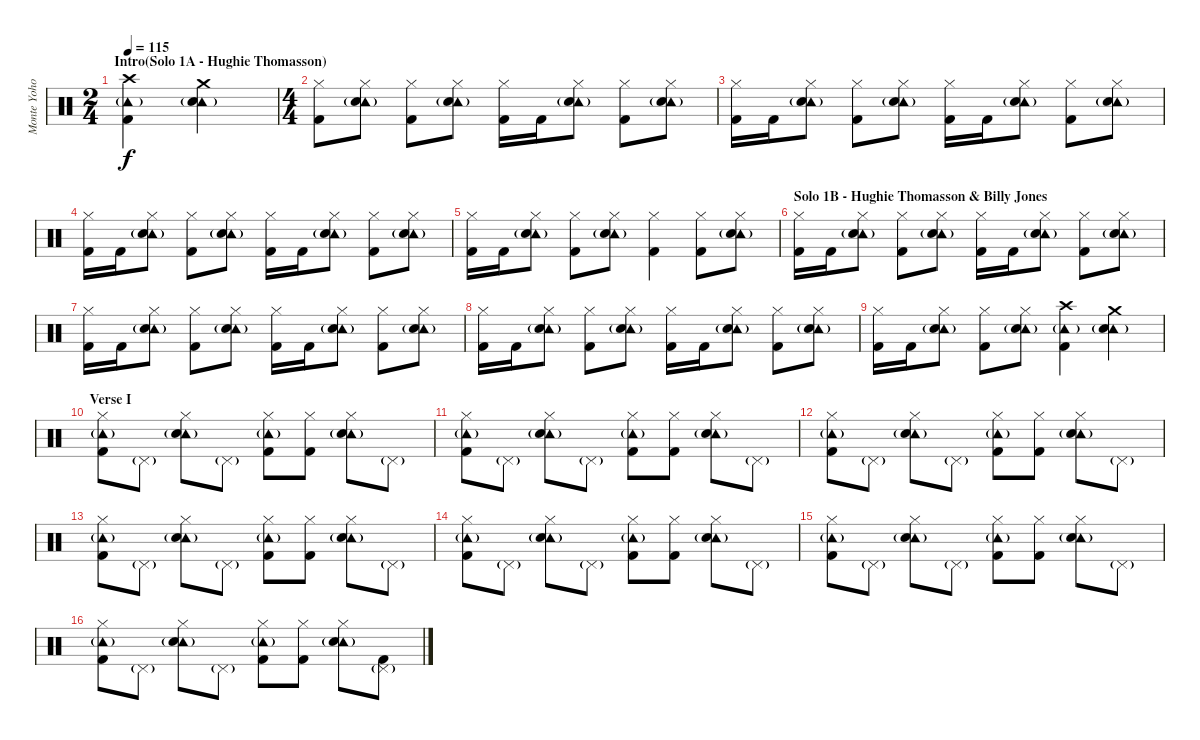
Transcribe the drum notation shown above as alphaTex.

\track ("Monte Yoho - Drums" "Monte Yoho") {instrument percussion}
\staff {score}
\articulation defaults
\ts (2 4)
\section ("" "Intro(Solo 1A - Hughie Thomasson)")
\tempo 115
\clef neutral
\ks c
("Crash high (hit)" "Tambourine (hit)"{g} "Kick (hit) 2").4{dy f} ("Crash medium (hit)" "Tambourine (hit)"{g} "Snare (hit) 2").4 |
\ts (4 4)
("Hi-Hat (closed)" "Kick (hit) 2").8 ("Hi-Hat (closed)" "Tambourine (hit)"{g} "Snare (hit) 2").8 ("Hi-Hat (closed)" "Kick (hit) 2").8 ("Hi-Hat (closed)" "Tambourine (hit)"{g} "Snare (hit) 2").8 ("Hi-Hat (closed)" "Kick (hit) 2").16 "Kick (hit) 2".16 ("Hi-Hat (closed)" "Tambourine (hit)"{g} "Snare (hit) 2").8 ("Hi-Hat (closed)" "Kick (hit) 2").8 ("Hi-Hat (closed)" "Tambourine (hit)"{g} "Snare (hit) 2").8 |
("Hi-Hat (closed)" "Kick (hit) 2").16 "Kick (hit) 2".16 ("Hi-Hat (closed)" "Tambourine (hit)"{g} "Snare (hit) 2").8 ("Hi-Hat (closed)" "Kick (hit) 2").8 ("Hi-Hat (closed)" "Tambourine (hit)"{g} "Snare (hit) 2").8 ("Hi-Hat (closed)" "Kick (hit) 2").16 "Kick (hit) 2".16 ("Hi-Hat (closed)" "Tambourine (hit)"{g} "Snare (hit) 2").8 ("Hi-Hat (closed)" "Kick (hit) 2").8 ("Hi-Hat (closed)" "Tambourine (hit)"{g} "Snare (hit) 2").8 |
("Hi-Hat (closed)" "Kick (hit) 2").16 "Kick (hit) 2".16 ("Hi-Hat (closed)" "Tambourine (hit)"{g} "Snare (hit) 2").8 ("Hi-Hat (closed)" "Kick (hit) 2").8 ("Hi-Hat (closed)" "Tambourine (hit)"{g} "Snare (hit) 2").8 ("Hi-Hat (closed)" "Kick (hit) 2").16 "Kick (hit) 2".16 ("Hi-Hat (closed)" "Tambourine (hit)"{g} "Snare (hit) 2").8 ("Hi-Hat (closed)" "Kick (hit) 2").8 ("Hi-Hat (closed)" "Tambourine (hit)"{g} "Snare (hit) 2").8 |
("Hi-Hat (closed)" "Kick (hit) 2").16 "Kick (hit) 2".16 ("Hi-Hat (closed)" "Tambourine (hit)"{g} "Snare (hit) 2").8 ("Hi-Hat (closed)" "Kick (hit) 2").8 ("Hi-Hat (closed)" "Tambourine (hit)"{g} "Snare (hit) 2").8 ("Hi-Hat (closed)" "Kick (hit) 2").4 ("Hi-Hat (closed)" "Kick (hit) 2").8 ("Hi-Hat (closed)" "Tambourine (hit)"{g} "Snare (hit) 2").8 |
\section ("" "Solo 1B - Hughie Thomasson & Billy Jones")
("Hi-Hat (closed)" "Kick (hit) 2").16 "Kick (hit) 2".16 ("Hi-Hat (closed)" "Tambourine (hit)"{g} "Snare (hit) 2").8 ("Hi-Hat (closed)" "Kick (hit) 2").8 ("Hi-Hat (closed)" "Tambourine (hit)"{g} "Snare (hit) 2").8 ("Hi-Hat (closed)" "Kick (hit) 2").16 "Kick (hit) 2".16 ("Hi-Hat (closed)" "Tambourine (hit)"{g} "Snare (hit) 2").8 ("Hi-Hat (closed)" "Kick (hit) 2").8 ("Hi-Hat (closed)" "Tambourine (hit)"{g} "Snare (hit) 2").8 |
("Hi-Hat (closed)" "Kick (hit) 2").16 "Kick (hit) 2".16 ("Hi-Hat (closed)" "Tambourine (hit)"{g} "Snare (hit) 2").8 ("Hi-Hat (closed)" "Kick (hit) 2").8 ("Hi-Hat (closed)" "Tambourine (hit)"{g} "Snare (hit) 2").8 ("Hi-Hat (closed)" "Kick (hit) 2").16 "Kick (hit) 2".16 ("Hi-Hat (closed)" "Tambourine (hit)"{g} "Snare (hit) 2").8 ("Hi-Hat (closed)" "Kick (hit) 2").8 ("Hi-Hat (closed)" "Tambourine (hit)"{g} "Snare (hit) 2").8 |
("Hi-Hat (closed)" "Kick (hit) 2").16 "Kick (hit) 2".16 ("Hi-Hat (closed)" "Tambourine (hit)"{g} "Snare (hit) 2").8 ("Hi-Hat (closed)" "Kick (hit) 2").8 ("Hi-Hat (closed)" "Tambourine (hit)"{g} "Snare (hit) 2").8 ("Hi-Hat (closed)" "Kick (hit) 2").16 "Kick (hit) 2".16 ("Hi-Hat (closed)" "Tambourine (hit)"{g} "Snare (hit) 2").8 ("Hi-Hat (closed)" "Kick (hit) 2").8 ("Hi-Hat (closed)" "Tambourine (hit)"{g} "Snare (hit) 2").8 |
("Hi-Hat (closed)" "Kick (hit) 2").16 "Kick (hit) 2".16 ("Hi-Hat (closed)" "Tambourine (hit)"{g} "Snare (hit) 2").8 ("Hi-Hat (closed)" "Kick (hit) 2").8 ("Hi-Hat (closed)" "Tambourine (hit)"{g} "Snare (hit) 2").8 ("Crash high (hit)" "Tambourine (hit)"{g} "Kick (hit) 2").4 ("Crash medium (hit)" "Tambourine (hit)"{g} "Snare (hit) 2").4 |
\section ("" "Verse I")
("Hi-Hat (closed)" "Tambourine (hit)"{g} "Kick (hit) 2").8 "Pedal Hi-Hat (hit)"{g}.8 ("Hi-Hat (closed)" "Tambourine (hit)"{g} "Snare (hit) 2").8 "Pedal Hi-Hat (hit)"{g}.8 ("Hi-Hat (closed)" "Tambourine (hit)"{g} "Kick (hit) 2").8 ("Hi-Hat (closed)" "Kick (hit) 2").8 ("Hi-Hat (closed)" "Tambourine (hit)"{g} "Snare (hit) 2").8 "Pedal Hi-Hat (hit)"{g}.8 |
("Hi-Hat (closed)" "Tambourine (hit)"{g} "Kick (hit) 2").8 "Pedal Hi-Hat (hit)"{g}.8 ("Hi-Hat (closed)" "Tambourine (hit)"{g} "Snare (hit) 2").8 "Pedal Hi-Hat (hit)"{g}.8 ("Hi-Hat (closed)" "Tambourine (hit)"{g} "Kick (hit) 2").8 ("Hi-Hat (closed)" "Kick (hit) 2").8 ("Hi-Hat (closed)" "Tambourine (hit)"{g} "Snare (hit) 2").8 "Pedal Hi-Hat (hit)"{g}.8 |
("Hi-Hat (closed)" "Tambourine (hit)"{g} "Kick (hit) 2").8 "Pedal Hi-Hat (hit)"{g}.8 ("Hi-Hat (closed)" "Tambourine (hit)"{g} "Snare (hit) 2").8 "Pedal Hi-Hat (hit)"{g}.8 ("Hi-Hat (closed)" "Tambourine (hit)"{g} "Kick (hit) 2").8 ("Hi-Hat (closed)" "Kick (hit) 2").8 ("Hi-Hat (closed)" "Tambourine (hit)"{g} "Snare (hit) 2").8 "Pedal Hi-Hat (hit)"{g}.8 |
("Hi-Hat (closed)" "Tambourine (hit)"{g} "Kick (hit) 2").8 "Pedal Hi-Hat (hit)"{g}.8 ("Hi-Hat (closed)" "Tambourine (hit)"{g} "Snare (hit) 2").8 "Pedal Hi-Hat (hit)"{g}.8 ("Hi-Hat (closed)" "Tambourine (hit)"{g} "Kick (hit) 2").8 ("Hi-Hat (closed)" "Kick (hit) 2").8 ("Hi-Hat (closed)" "Tambourine (hit)"{g} "Snare (hit) 2").8 "Pedal Hi-Hat (hit)"{g}.8 |
("Hi-Hat (closed)" "Tambourine (hit)"{g} "Kick (hit) 2").8 "Pedal Hi-Hat (hit)"{g}.8 ("Hi-Hat (closed)" "Tambourine (hit)"{g} "Snare (hit) 2").8 "Pedal Hi-Hat (hit)"{g}.8 ("Hi-Hat (closed)" "Tambourine (hit)"{g} "Kick (hit) 2").8 ("Hi-Hat (closed)" "Kick (hit) 2").8 ("Hi-Hat (closed)" "Tambourine (hit)"{g} "Snare (hit) 2").8 "Pedal Hi-Hat (hit)"{g}.8 |
("Hi-Hat (closed)" "Tambourine (hit)"{g} "Kick (hit) 2").8 "Pedal Hi-Hat (hit)"{g}.8 ("Hi-Hat (closed)" "Tambourine (hit)"{g} "Snare (hit) 2").8 "Pedal Hi-Hat (hit)"{g}.8 ("Hi-Hat (closed)" "Tambourine (hit)"{g} "Kick (hit) 2").8 ("Hi-Hat (closed)" "Kick (hit) 2").8 ("Hi-Hat (closed)" "Tambourine (hit)"{g} "Snare (hit) 2").8 "Pedal Hi-Hat (hit)"{g}.8 |
("Hi-Hat (closed)" "Tambourine (hit)"{g} "Kick (hit) 2").8 "Pedal Hi-Hat (hit)"{g}.8 ("Hi-Hat (closed)" "Tambourine (hit)"{g} "Snare (hit) 2").8 "Pedal Hi-Hat (hit)"{g}.8 ("Hi-Hat (closed)" "Tambourine (hit)"{g} "Kick (hit) 2").8 ("Hi-Hat (closed)" "Kick (hit) 2").8 ("Hi-Hat (closed)" "Tambourine (hit)"{g} "Snare (hit) 2").8 ("Pedal Hi-Hat (hit)"{g} "Kick (hit) 2").8
